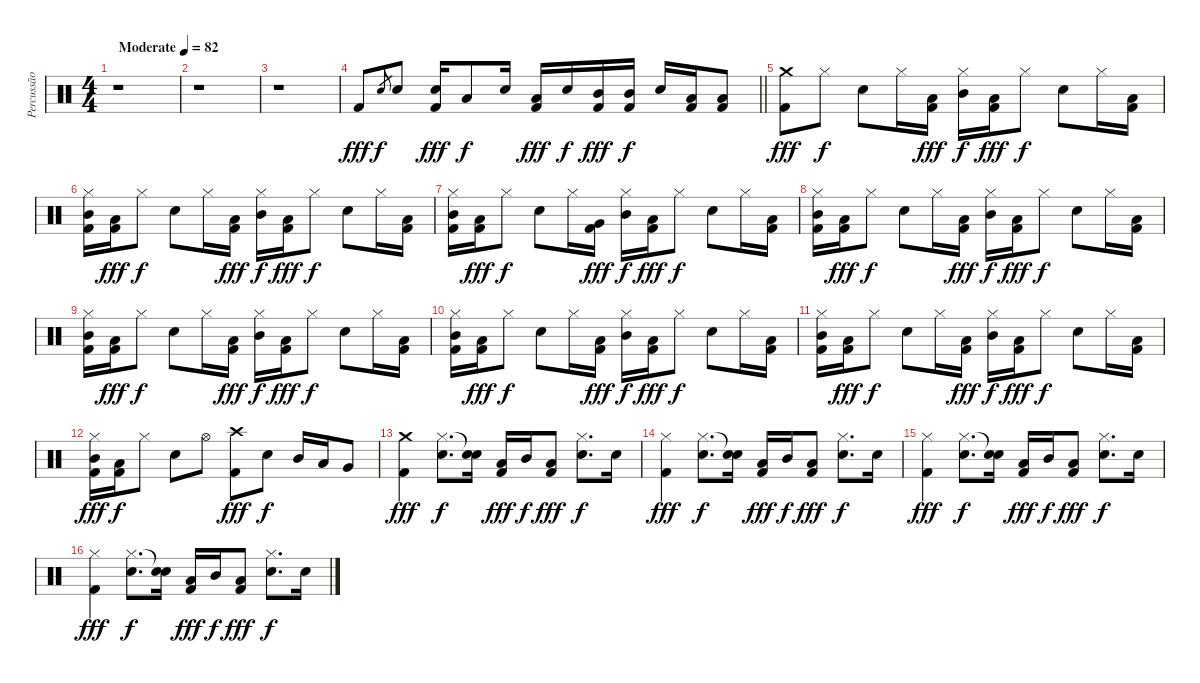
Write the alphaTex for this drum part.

\track ("Percussão" "Percussão") {instrument percussion}
\staff {score}
\articulation defaults
\ts (4 4)
\tempo (82 "Moderate")
\clef neutral
\ks c
r.1{dy fff} |
r.1 |
r.1 |
\barLineRight lightlight "Kick (hit) 2".8 "Snare (hit) 2".8{gr dy f} "Snare (hit) 2".8
("Snare (hit) 2" "Kick (hit) 2").16{dy fff} "Low Tom (hit)".8{dy f} "Snare (hit) 2".16 ("Low Tom (hit)" "Kick (hit) 2").16{dy fff} "Snare (hit) 2".16{dy f} ("Mid Tom (hit)" "Kick (hit) 2").16{dy fff} ("Mid Tom (hit)" "Kick (hit) 2").16{dy f} "Snare (hit) 2".16 ("Low Tom (hit)" "Kick (hit) 2").16 ("Low Tom (hit)" "Kick (hit) 2").8 |
("Crash medium (hit)" "Kick (hit) 2").8{dy fff} "Hi-Hat (closed)".8{dy f} "Snare (hit) 2".8 "Hi-Hat (closed)".16 ("Low Tom (hit)" "Kick (hit) 2").16{dy fff} ("Hi-Hat (closed)" "Mid Tom (hit)").16{dy f} ("Low Tom (hit)" "Kick (hit) 2").16{dy fff} "Hi-Hat (closed)".8{dy f} "Snare (hit) 2".8 "Hi-Hat (closed)".16 ("Low Tom (hit)" "Kick (hit) 2").16 |
("Hi-Hat (closed)" "Mid Tom (hit)" "Kick (hit) 2").16 ("Low Tom (hit)" "Kick (hit) 2").16{dy fff} "Hi-Hat (closed)".8{dy f} "Snare (hit) 2".8 "Hi-Hat (closed)".16 ("Low Tom (hit)" "Kick (hit) 2").16{dy fff} ("Hi-Hat (closed)" "Mid Tom (hit)").16{dy f} ("Low Tom (hit)" "Kick (hit) 2").16{dy fff} "Hi-Hat (closed)".8{dy f} "Snare (hit) 2".8 "Hi-Hat (closed)".16 ("Low Tom (hit)" "Kick (hit) 2").16 |
("Hi-Hat (closed)" "Mid Tom (hit)" "Kick (hit) 2").16 ("Low Tom (hit)" "Kick (hit) 2").16{dy fff} "Hi-Hat (closed)".8{dy f} "Snare (hit) 2".8 "Hi-Hat (closed)".16 ("Very Low Tom (hit)" "Kick (hit) 2").16{dy fff} ("Hi-Hat (closed)" "Mid Tom (hit)").16{dy f} ("Low Tom (hit)" "Kick (hit) 2").16{dy fff} "Hi-Hat (closed)".8{dy f} "Snare (hit) 2".8 "Hi-Hat (closed)".16 ("Low Tom (hit)" "Kick (hit) 2").16 |
("Hi-Hat (closed)" "Mid Tom (hit)" "Kick (hit) 2").16 ("Low Tom (hit)" "Kick (hit) 2").16{dy fff} "Hi-Hat (closed)".8{dy f} "Snare (hit) 2".8 "Hi-Hat (closed)".16 ("Low Tom (hit)" "Kick (hit) 2").16{dy fff} ("Hi-Hat (closed)" "Mid Tom (hit)").16{dy f} ("Low Tom (hit)" "Kick (hit) 2").16{dy fff} "Hi-Hat (closed)".8{dy f} "Snare (hit) 2".8 "Hi-Hat (closed)".16 ("Low Tom (hit)" "Kick (hit) 2").16 |
("Hi-Hat (closed)" "Mid Tom (hit)" "Kick (hit) 2").16 ("Low Tom (hit)" "Kick (hit) 2").16{dy fff} "Hi-Hat (closed)".8{dy f} "Snare (hit) 2".8 "Hi-Hat (closed)".16 ("Low Tom (hit)" "Kick (hit) 2").16{dy fff} ("Hi-Hat (closed)" "Mid Tom (hit)").16{dy f} ("Low Tom (hit)" "Kick (hit) 2").16{dy fff} "Hi-Hat (closed)".8{dy f} "Snare (hit) 2".8 "Hi-Hat (closed)".16 ("Low Tom (hit)" "Kick (hit) 2").16 |
("Hi-Hat (closed)" "Mid Tom (hit)" "Kick (hit) 2").16 ("Low Tom (hit)" "Kick (hit) 2").16{dy fff} "Hi-Hat (closed)".8{dy f} "Snare (hit) 2".8 "Hi-Hat (closed)".16 ("Low Tom (hit)" "Kick (hit) 2").16{dy fff} ("Hi-Hat (closed)" "Mid Tom (hit)").16{dy f} ("Low Tom (hit)" "Kick (hit) 2").16{dy fff} "Hi-Hat (closed)".8{dy f} "Snare (hit) 2".8 "Hi-Hat (closed)".16 ("Low Tom (hit)" "Kick (hit) 2").16 |
("Hi-Hat (closed)" "Mid Tom (hit)" "Kick (hit) 2").16 ("Low Tom (hit)" "Kick (hit) 2").16{dy fff} "Hi-Hat (closed)".8{dy f} "Snare (hit) 2".8 "Hi-Hat (closed)".16 ("Low Tom (hit)" "Kick (hit) 2").16{dy fff} ("Hi-Hat (closed)" "Mid Tom (hit)").16{dy f} ("Low Tom (hit)" "Kick (hit) 2").16{dy fff} "Hi-Hat (closed)".8{dy f} "Snare (hit) 2".8 "Hi-Hat (closed)".16 ("Low Tom (hit)" "Kick (hit) 2").16 |
("Hi-Hat (closed)" "Mid Tom (hit)" "Kick (hit) 2").16{dy fff} ("Low Tom (hit)" "Kick (hit) 2").16{dy f} "Hi-Hat (closed)".8 "Snare (hit) 2".8 "Hi-Hat (open)".8 ("Crash high (hit)" "Kick (hit) 2").8{dy fff} "Snare (hit) 2".8{dy f} "Mid Tom (hit)".16 "Low Tom (hit)".16 "Very Low Tom (hit)".8 |
("Crash medium (hit)" "Kick (hit) 2").4{dy fff} ("Hi-Hat (closed)" "Snare (hit) 2").8{d dy f} ("Snare (hit)"{t} "Snare (hit) 2").16 ("Low Tom (hit)" "Kick (hit) 2").16{dy fff} "Mid Tom (hit)".16{dy f} ("Low Tom (hit)" "Kick (hit) 2").8{dy fff} ("Hi-Hat (closed)" "Snare (hit) 2").8{d dy f} "Snare (hit) 2".16 |
("Hi-Hat (closed)" "Kick (hit) 2").4{dy fff} ("Hi-Hat (closed)" "Snare (hit) 2").8{d dy f} ("Snare (hit)"{t} "Snare (hit) 2").16 ("Low Tom (hit)" "Kick (hit) 2").16{dy fff} "Mid Tom (hit)".16{dy f} ("Low Tom (hit)" "Kick (hit) 2").8{dy fff} ("Hi-Hat (closed)" "Snare (hit) 2").8{d dy f} "Snare (hit) 2".16 |
("Hi-Hat (closed)" "Kick (hit) 2").4{dy fff} ("Hi-Hat (closed)" "Snare (hit) 2").8{d dy f} ("Snare (hit)"{t} "Snare (hit) 2").16 ("Low Tom (hit)" "Kick (hit) 2").16{dy fff} "Mid Tom (hit)".16{dy f} ("Low Tom (hit)" "Kick (hit) 2").8{dy fff} ("Hi-Hat (closed)" "Snare (hit) 2").8{d dy f} "Snare (hit) 2".16 |
("Hi-Hat (closed)" "Kick (hit) 2").4{dy fff} ("Hi-Hat (closed)" "Snare (hit) 2").8{d dy f} ("Snare (hit)"{t} "Snare (hit) 2").16 ("Low Tom (hit)" "Kick (hit) 2").16{dy fff} "Mid Tom (hit)".16{dy f} ("Low Tom (hit)" "Kick (hit) 2").8{dy fff} ("Hi-Hat (closed)" "Snare (hit) 2").8{d dy f} "Snare (hit) 2".16
